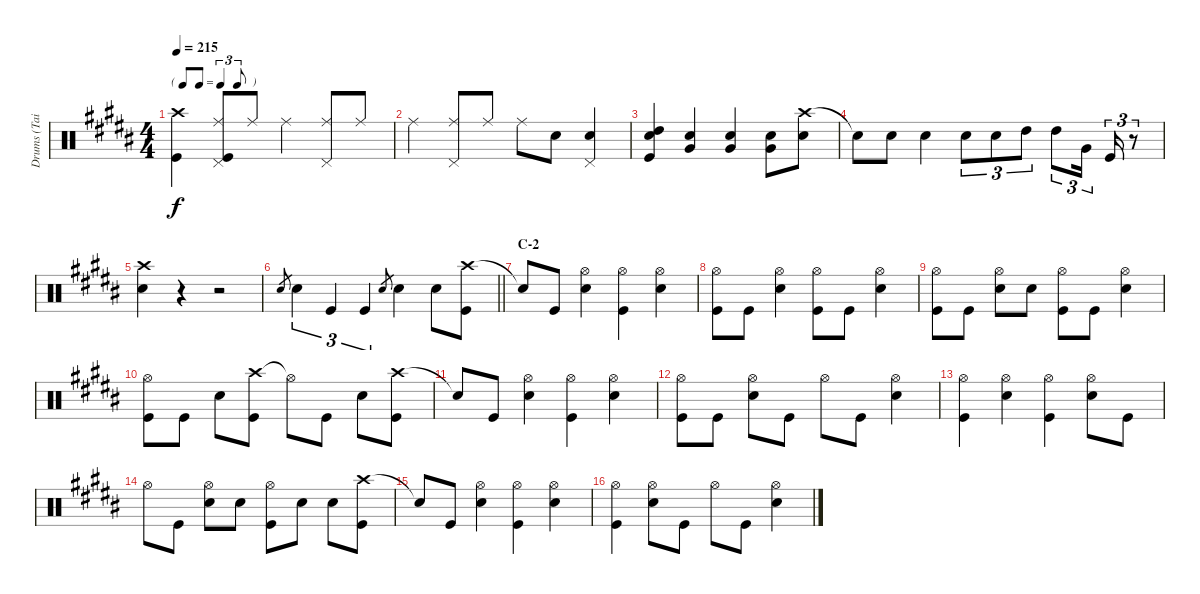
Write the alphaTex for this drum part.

\track ("Drums (Tainaka Ritsu)" "Drums (Tai") {instrument percussion}
\staff {score}
\articulation defaults
\ts (4 4)
\tf triplet8th
\tempo 215
\clef neutral
\ks b
("Crash high (hit)" "Kick (hit)").4{dy f} ("Ride (middle)" "Pedal Hi-Hat (hit)" "Kick (hit)").8 "Ride (middle)".8 "Ride (middle)".4 ("Ride (middle)" "Pedal Hi-Hat (hit)").8 "Ride (middle)".8 |
"Ride (middle)".4 ("Ride (middle)" "Pedal Hi-Hat (hit)").8 "Ride (middle)".8 "Ride (middle)".8 "Snare (hit) 2".8 ("Pedal Hi-Hat (hit)" "Snare (hit) 2").4 |
("Snare (hit) 2" "High Tom (hit)" "Kick (hit)").4 ("Snare (hit) 2" "Very Low Tom (hit)").4 ("Snare (hit) 2" "Very Low Tom (hit)").4 ("Snare (hit) 2" "Very Low Tom (hit)").8 ("Crash high (hit)" "Snare (hit) 2").8 |
"Snare (hit)"{t}.8 "Snare (hit) 2".8 "Snare (hit) 2".4 "Snare (hit) 2".8{tu (3 2)} "Snare (hit) 2".8{tu (3 2)} "High Tom (hit)".8{tu (3 2)} "High Tom (hit)".8{tu (3 2)} "Very Low Tom (hit)".16{tu (3 2)} "Kick (hit)".16{tu (3 2)} r.8{tu (3 2)} |
("Crash high (hit)" "Snare (hit) 2").4 r.4 r.2 |
\barLineRight lightlight "Snare (hit) 2".8{gr} "Snare (hit) 2".4{tu (3 2)} "Kick (hit)".4{tu (3 2)} "Kick (hit)".4{tu (3 2)} "Snare (hit) 2".8{gr} "Snare (hit) 2".4 "Snare (hit) 2".8
("Crash high (hit)" "Kick (hit)").8 |
\section ("" "C-2")
"Snare (hit)"{t}.8 "Kick (hit)".8 ("Hi-Hat (open)" "Snare (hit) 2").4 ("Hi-Hat (open)" "Kick (hit)").4 ("Hi-Hat (open)" "Snare (hit) 2").4 |
("Hi-Hat (open)" "Kick (hit)").8 "Kick (hit)".8 ("Hi-Hat (open)" "Snare (hit) 2").4 ("Hi-Hat (open)" "Kick (hit)").8 "Kick (hit)".8 ("Hi-Hat (open)" "Snare (hit) 2").4 |
("Hi-Hat (open)" "Kick (hit)").8 "Kick (hit)".8 ("Hi-Hat (open)" "Snare (hit) 2").8 "Snare (hit) 2".8 ("Hi-Hat (open)" "Kick (hit)").8 "Kick (hit)".8 ("Hi-Hat (open)" "Snare (hit) 2").4 |
("Hi-Hat (open)" "Kick (hit)").8 "Kick (hit)".8 "Snare (hit) 2".8 ("Crash high (hit)" "Kick (hit)").8 "Hi-Hat (open)"{t}.8 "Kick (hit)".8 "Snare (hit) 2".8 ("Crash high (hit)" "Kick (hit)").8 |
"Snare (hit)"{t}.8 "Kick (hit)".8 ("Hi-Hat (open)" "Snare (hit) 2").4 ("Hi-Hat (open)" "Kick (hit)").4 ("Hi-Hat (open)" "Snare (hit) 2").4 |
("Hi-Hat (open)" "Kick (hit)").8 "Kick (hit)".8 ("Hi-Hat (open)" "Snare (hit) 2").8 "Kick (hit)".8 "Hi-Hat (open)".8 "Kick (hit)".8 ("Hi-Hat (open)" "Snare (hit) 2").4 |
("Hi-Hat (open)" "Kick (hit)").4 ("Hi-Hat (open)" "Snare (hit) 2").4 ("Hi-Hat (open)" "Kick (hit)").4 ("Hi-Hat (open)" "Snare (hit) 2").8 "Kick (hit)".8 |
"Hi-Hat (open)".8 "Kick (hit)".8 ("Hi-Hat (open)" "Snare (hit) 2").8 "Snare (hit) 2".8 ("Hi-Hat (open)" "Kick (hit)").8 "Snare (hit) 2".8 "Snare (hit) 2".8 ("Crash high (hit)" "Kick (hit)").8 |
"Snare (hit)"{t}.8 "Kick (hit)".8 ("Hi-Hat (open)" "Snare (hit) 2").4 ("Hi-Hat (open)" "Kick (hit)").4 ("Hi-Hat (open)" "Snare (hit) 2").4 |
("Hi-Hat (open)" "Kick (hit)").4 ("Hi-Hat (open)" "Snare (hit) 2").8 "Kick (hit)".8 "Hi-Hat (open)".8 "Kick (hit)".8 ("Hi-Hat (open)" "Snare (hit) 2").4
